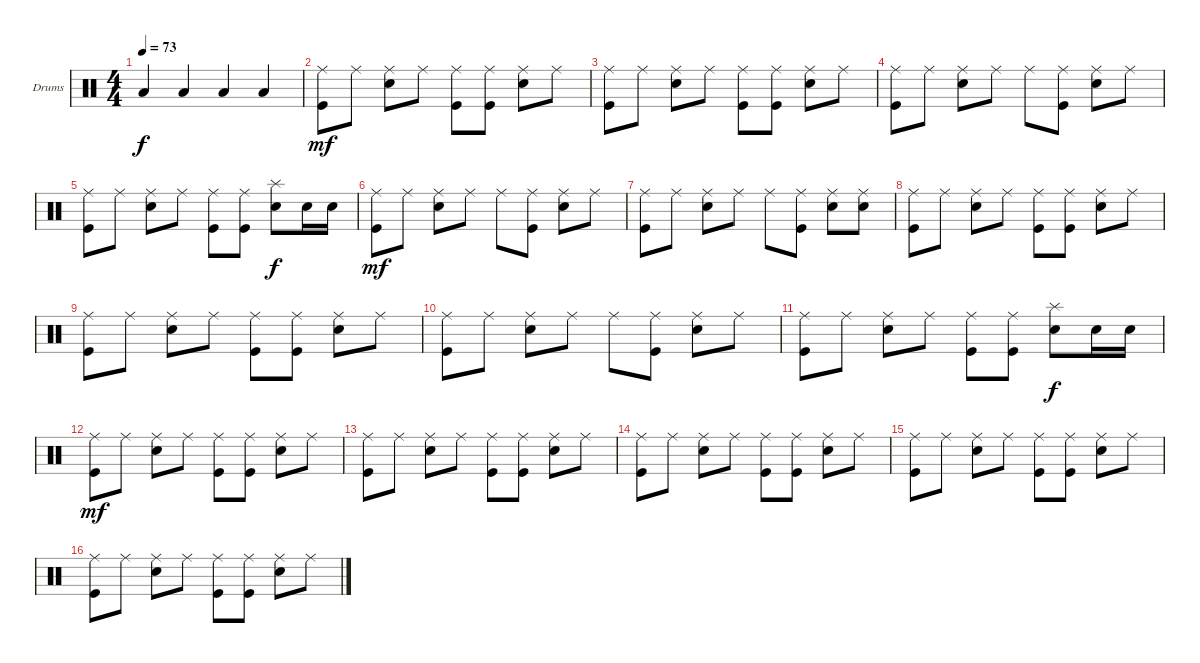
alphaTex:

\bracketExtendMode groupsimilarinstruments
\firstSystemTrackNameOrientation horizontal
\otherSystemsTrackNameOrientation horizontal
\track ("Drumkit" "Drums") {solo instrument percussion}
\staff {score}
\articulation defaults
\ts (4 4)
\tempo 73
\clef neutral
\ks c "Low Tom (hit)".4{dy f} "Low Tom (hit)".4 "Low Tom (hit)".4 "Low Tom (hit)".4
|
("Ride (middle)" "Kick (hit)").8{dy mf} "Ride (middle)".8 ("Ride (middle)" "Snare (hit) 2").8 "Ride (middle)".8 ("Ride (middle)" "Kick (hit)").8 ("Ride (middle)" "Kick (hit)").8 ("Ride (middle)" "Snare (hit) 2").8 "Ride (middle)".8 |
("Ride (middle)" "Kick (hit)").8 "Ride (middle)".8 ("Ride (middle)" "Snare (hit) 2").8 "Ride (middle)".8 ("Ride (middle)" "Kick (hit)").8 ("Ride (middle)" "Kick (hit)").8 ("Ride (middle)" "Snare (hit) 2").8 "Ride (middle)".8 |
("Ride (middle)" "Kick (hit)").8 "Ride (middle)".8 ("Ride (middle)" "Snare (hit) 2").8 "Ride (middle)".8 "Ride (middle)".8 ("Ride (middle)" "Kick (hit)").8 ("Ride (middle)" "Snare (hit) 2").8 "Ride (middle)".8 |
("Ride (middle)" "Kick (hit)").8 "Ride (middle)".8 ("Ride (middle)" "Snare (hit) 2").8 "Ride (middle)".8 ("Ride (middle)" "Kick (hit)").8 ("Ride (middle)" "Kick (hit)").8 ("Splash (hit)" "Snare (hit) 2").8{dy f} "Snare (hit) 2".16 "Snare (hit) 2".16 |
("Ride (middle)" "Kick (hit)").8{dy mf} "Ride (middle)".8 ("Ride (middle)" "Snare (hit) 2").8 "Ride (middle)".8 "Ride (middle)".8 ("Ride (middle)" "Kick (hit)").8 ("Ride (middle)" "Snare (hit) 2").8 "Ride (middle)".8 |
("Ride (middle)" "Kick (hit)").8 "Ride (middle)".8 ("Ride (middle)" "Snare (hit) 2").8 "Ride (middle)".8 "Ride (middle)".8 ("Ride (middle)" "Kick (hit)").8 ("Ride (middle)" "Snare (hit) 2").8 ("Ride (middle)" "Snare (hit) 2").8 |
("Ride (middle)" "Kick (hit)").8 "Ride (middle)".8 ("Ride (middle)" "Snare (hit) 2").8 "Ride (middle)".8 ("Ride (middle)" "Kick (hit)").8 ("Ride (middle)" "Kick (hit)").8 ("Ride (middle)" "Snare (hit) 2").8 "Ride (middle)".8 |
("Ride (middle)" "Kick (hit)").8 "Ride (middle)".8 ("Ride (middle)" "Snare (hit) 2").8 "Ride (middle)".8 ("Ride (middle)" "Kick (hit)").8 ("Ride (middle)" "Kick (hit)").8 ("Ride (middle)" "Snare (hit) 2").8 "Ride (middle)".8 |
("Ride (middle)" "Kick (hit)").8 "Ride (middle)".8 ("Ride (middle)" "Snare (hit) 2").8 "Ride (middle)".8 "Ride (middle)".8 ("Ride (middle)" "Kick (hit)").8 ("Ride (middle)" "Snare (hit) 2").8 "Ride (middle)".8 |
("Ride (middle)" "Kick (hit)").8 "Ride (middle)".8 ("Ride (middle)" "Snare (hit) 2").8 "Ride (middle)".8 ("Ride (middle)" "Kick (hit)").8 ("Ride (middle)" "Kick (hit)").8 ("Splash (hit)" "Snare (hit) 2").8{dy f} "Snare (hit) 2".16 "Snare (hit) 2".16 |
("Ride (middle)" "Kick (hit)").8{dy mf} "Ride (middle)".8 ("Ride (middle)" "Snare (hit) 2").8 "Ride (middle)".8 ("Ride (middle)" "Kick (hit)").8 ("Ride (middle)" "Kick (hit)").8 ("Ride (middle)" "Snare (hit) 2").8 "Ride (middle)".8 |
("Ride (middle)" "Kick (hit)").8 "Ride (middle)".8 ("Ride (middle)" "Snare (hit) 2").8 "Ride (middle)".8 ("Ride (middle)" "Kick (hit)").8 ("Ride (middle)" "Kick (hit)").8 ("Ride (middle)" "Snare (hit) 2").8 "Ride (middle)".8 |
("Ride (middle)" "Kick (hit)").8 "Ride (middle)".8 ("Ride (middle)" "Snare (hit) 2").8 "Ride (middle)".8 ("Ride (middle)" "Kick (hit)").8 ("Ride (middle)" "Kick (hit)").8 ("Ride (middle)" "Snare (hit) 2").8 "Ride (middle)".8 |
("Ride (middle)" "Kick (hit)").8 "Ride (middle)".8 ("Ride (middle)" "Snare (hit) 2").8 "Ride (middle)".8 ("Ride (middle)" "Kick (hit)").8 ("Ride (middle)" "Kick (hit)").8 ("Ride (middle)" "Snare (hit) 2").8 "Ride (middle)".8 |
("Ride (middle)" "Kick (hit)").8 "Ride (middle)".8 ("Ride (middle)" "Snare (hit) 2").8 "Ride (middle)".8 ("Ride (middle)" "Kick (hit)").8 ("Ride (middle)" "Kick (hit)").8 ("Ride (middle)" "Snare (hit) 2").8 "Ride (middle)".8
